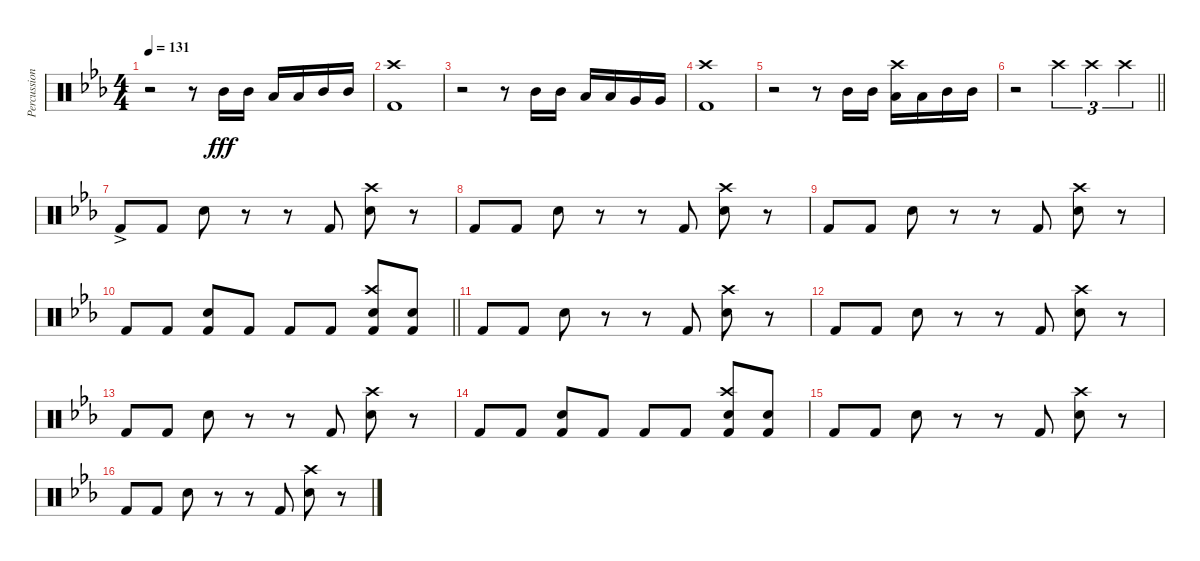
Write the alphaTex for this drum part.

\track ("Percussion" "Percussion") {instrument percussion}
\staff {score}
\articulation defaults
\ts (4 4)
\tempo 131
\clef neutral
\ks cminor
r.2{dy fff} r.8 "Mid Tom (hit)".16 "Mid Tom (hit)".16 "Low Tom (hit)".16 "Low Tom (hit)".16 "Mid Tom (hit)".16 "Mid Tom (hit)".16 |
("Kick (hit) 2" "Crash high (hit)").1 |
r.2 r.8 "Mid Tom (hit)".16 "Mid Tom (hit)".16 "Low Tom (hit)".16 "Low Tom (hit)".16 "Very Low Tom (hit)".16 "Very Low Tom (hit)".16 |
("Kick (hit) 2" "Crash high (hit)").1 |
r.2 r.8 "Mid Tom (hit)".16 "Mid Tom (hit)".16 ("Low Tom (hit)" "Crash high (hit)").16 "Low Tom (hit)".16 "Mid Tom (hit)".16 "Mid Tom (hit)".16 |
\barLineRight lightlight
r.2 "Crash high (hit)".4{tu (3 2)} "Crash high (hit)".4{tu (3 2)} "Crash high (hit)".4{tu (3 2)} |
"Kick (hit) 2"{ac}.8 "Kick (hit) 2".8 "Electric Snare (hit)".8 r.8 r.8 "Kick (hit) 2".8 ("Electric Snare (hit)" "Crash high (hit)").8 r.8 |
"Kick (hit) 2".8 "Kick (hit) 2".8 "Electric Snare (hit)".8 r.8 r.8 "Kick (hit) 2".8 ("Electric Snare (hit)" "Crash high (hit)").8 r.8 |
"Kick (hit) 2".8 "Kick (hit) 2".8 "Electric Snare (hit)".8 r.8 r.8 "Kick (hit) 2".8 ("Electric Snare (hit)" "Crash high (hit)").8 r.8 |
\barLineRight lightlight "Kick (hit) 2".8 "Kick (hit) 2".8
("Electric Snare (hit)" "Kick (hit) 2").8 "Kick (hit) 2".8 "Kick (hit) 2".8 "Kick (hit) 2".8 ("Electric Snare (hit)" "Crash high (hit)" "Kick (hit) 2").8 ("Kick (hit) 2" "Electric Snare (hit)").8 |
"Kick (hit) 2".8 "Kick (hit) 2".8 "Electric Snare (hit)".8 r.8 r.8 "Kick (hit) 2".8 ("Electric Snare (hit)" "Crash high (hit)").8 r.8 |
"Kick (hit) 2".8 "Kick (hit) 2".8 "Electric Snare (hit)".8 r.8 r.8 "Kick (hit) 2".8 ("Electric Snare (hit)" "Crash high (hit)").8 r.8 |
"Kick (hit) 2".8 "Kick (hit) 2".8 "Electric Snare (hit)".8 r.8 r.8 "Kick (hit) 2".8 ("Electric Snare (hit)" "Crash high (hit)").8 r.8 |
"Kick (hit) 2".8 "Kick (hit) 2".8 ("Electric Snare (hit)" "Kick (hit) 2").8 "Kick (hit) 2".8 "Kick (hit) 2".8 "Kick (hit) 2".8 ("Electric Snare (hit)" "Crash high (hit)" "Kick (hit) 2").8 ("Kick (hit) 2" "Electric Snare (hit)").8 |
"Kick (hit) 2".8 "Kick (hit) 2".8 "Electric Snare (hit)".8 r.8 r.8 "Kick (hit) 2".8 ("Electric Snare (hit)" "Crash high (hit)").8 r.8 |
"Kick (hit) 2".8 "Kick (hit) 2".8 "Electric Snare (hit)".8 r.8 r.8 "Kick (hit) 2".8 ("Electric Snare (hit)" "Crash high (hit)").8 r.8
